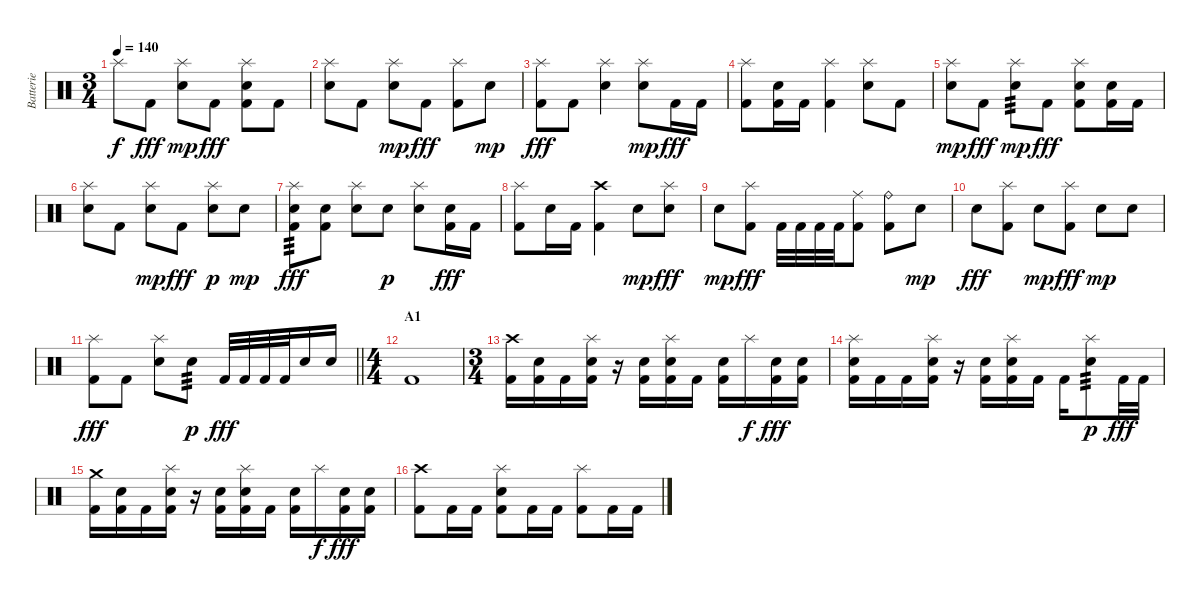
\track ("Batterie" "Batterie") {instrument percussion}
\staff {score}
\articulation defaults
\ts (3 4)
\tempo 140
\clef neutral
\ks c "Splash (hit)".8{dy f} "Kick (hit) 2".8{dy fff}
("Splash (hit)" "Electric Snare (hit)").8{dy mp} "Kick (hit) 2".8{dy fff} ("Splash (hit)" "Electric Snare (hit)" "Kick (hit) 2").8 "Kick (hit) 2".8 |
("Splash (hit)" "Electric Snare (hit)").8 "Kick (hit) 2".8 ("Splash (hit)" "Electric Snare (hit)").8{dy mp} "Kick (hit) 2".8{dy fff} ("Splash (hit)" "Kick (hit) 2").8 "Electric Snare (hit)".8{dy mp} |
("Splash (hit)" "Kick (hit) 2").8{dy fff} "Kick (hit) 2".8 ("Splash (hit)" "Electric Snare (hit)").4 ("Splash (hit)" "Electric Snare (hit)").8{dy mp} "Kick (hit) 2".16{dy fff} "Kick (hit) 2".16 |
("Splash (hit)" "Kick (hit) 2").8 ("Electric Snare (hit)" "Kick (hit) 2").16 "Kick (hit) 2".16 ("Splash (hit)" "Kick (hit) 2").4 ("Splash (hit)" "Electric Snare (hit)").8 "Kick (hit) 2".8 |
("Splash (hit)" "Electric Snare (hit)").8{dy mp} "Kick (hit) 2".8{dy fff} ("Splash (hit)" "Electric Snare (hit)").8{tp 3 dy mp} "Kick (hit) 2".8{dy fff} ("Splash (hit)" "Electric Snare (hit)" "Kick (hit) 2").8 ("Electric Snare (hit)" "Kick (hit) 2").16 "Kick (hit) 2".16 |
("Splash (hit)" "Electric Snare (hit)").8 "Kick (hit) 2".8 ("Splash (hit)" "Electric Snare (hit)").8{dy mp} "Kick (hit) 2".8{dy fff} ("Splash (hit)" "Electric Snare (hit)").8{dy p} "Electric Snare (hit)".8{dy mp} |
("Splash (hit)" "Electric Snare (hit)" "Kick (hit) 2").8{tp 3 dy fff} ("Electric Snare (hit)" "Kick (hit) 2").8 ("Splash (hit)" "Electric Snare (hit)").8 "Electric Snare (hit)".8{dy p} ("Splash (hit)" "Electric Snare (hit)").8 ("Electric Snare (hit)" "Kick (hit) 2").16{dy fff} "Kick (hit) 2".16 |
("Splash (hit)" "Kick (hit) 2").8 "Electric Snare (hit)".16 "Kick (hit) 2".16 ("Crash high (hit)" "Kick (hit) 2").4 "Electric Snare (hit)".8{dy mp} ("Splash (hit)" "Electric Snare (hit)").8{dy fff} |
"Electric Snare (hit)".8{dy mp} ("Splash (hit)" "Kick (hit) 2").8{dy fff} "Kick (hit) 2".32 "Kick (hit) 2".32 "Kick (hit) 2".32 "Kick (hit) 2".32 ("Ride (middle)" "Kick (hit) 2").8 ("Ride (bell)" "Kick (hit) 2").8 "Electric Snare (hit)".8{dy mp} |
"Electric Snare (hit)".8{dy fff} ("Splash (hit)" "Kick (hit) 2").8 "Electric Snare (hit)".8{dy mp} ("Splash (hit)" "Kick (hit) 2").8{dy fff} "Electric Snare (hit)".8{dy mp} "Electric Snare (hit)".8 |
\barLineRight lightlight
("Splash (hit)" "Kick (hit) 2").8{dy fff} "Kick (hit) 2".8 ("Splash (hit)" "Electric Snare (hit)").8 "Electric Snare (hit)".8{tp 3 dy p} "Kick (hit) 2".32{dy fff} "Kick (hit) 2".32 "Kick (hit) 2".32 "Kick (hit) 2".32 "Electric Snare (hit)".16 "Electric Snare (hit)".16 |
\ts (4 4)
\section ("" "A1")
"Kick (hit) 2".1 |
\ts (3 4)
("Crash high (hit)" "Kick (hit) 2").16 ("Electric Snare (hit)" "Kick (hit) 2").16 "Kick (hit) 2".16 ("Splash (hit)" "Electric Snare (hit)" "Kick (hit) 2").16 r.16 ("Electric Snare (hit)" "Kick (hit) 2").16 ("Splash (hit)" "Electric Snare (hit)" "Kick (hit) 2").16 "Kick (hit) 2".16 ("Electric Snare (hit)" "Kick (hit) 2").16 "Splash (hit)".16{dy f} ("Electric Snare (hit)" "Kick (hit) 2").16{dy fff} ("Electric Snare (hit)" "Kick (hit) 2").16 |
("Splash (hit)" "Electric Snare (hit)" "Kick (hit) 2").16 "Kick (hit) 2".16 "Kick (hit) 2".16 ("Splash (hit)" "Electric Snare (hit)" "Kick (hit) 2").16 r.16 ("Electric Snare (hit)" "Kick (hit) 2").16 ("Splash (hit)" "Electric Snare (hit)" "Kick (hit) 2").16 "Kick (hit) 2".16 "Kick (hit) 2".16 ("Splash (hit)" "Electric Snare (hit)").8{tp 3 dy p} "Kick (hit) 2".32{dy fff} "Kick (hit) 2".32 |
("Crash medium (hit)" "Kick (hit) 2").16 ("Electric Snare (hit)" "Kick (hit) 2").16 "Kick (hit) 2".16 ("Splash (hit)" "Electric Snare (hit)" "Kick (hit) 2").16 r.16 ("Electric Snare (hit)" "Kick (hit) 2").16 ("Splash (hit)" "Electric Snare (hit)" "Kick (hit) 2").16 "Kick (hit) 2".16 ("Electric Snare (hit)" "Kick (hit) 2").16 "Splash (hit)".16{dy f} ("Electric Snare (hit)" "Kick (hit) 2").16{dy fff} ("Electric Snare (hit)" "Kick (hit) 2").16 |
("Crash high (hit)" "Kick (hit) 2").8 "Kick (hit) 2".16 "Kick (hit) 2".16 ("Splash (hit)" "Electric Snare (hit)" "Kick (hit) 2").8 "Kick (hit) 2".16 "Kick (hit) 2".16 ("Splash (hit)" "Kick (hit) 2").8 "Kick (hit) 2".16 "Kick (hit) 2".16
